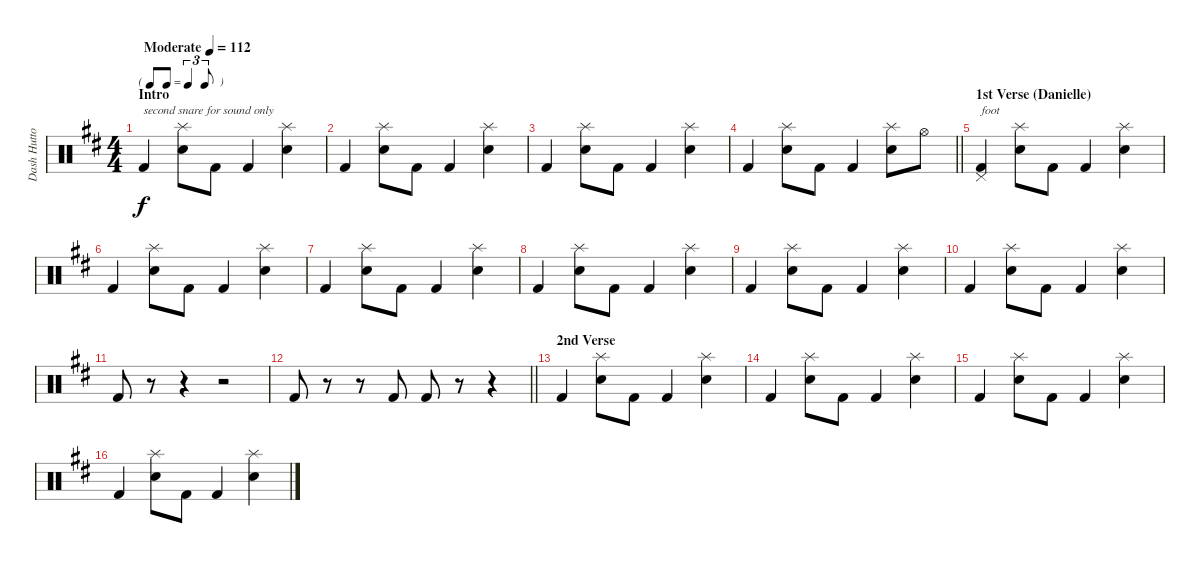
\track ("Dash Hutton" "Dash Hutto") {instrument percussion}
\staff {score}
\articulation defaults
\ts (4 4)
\tf triplet8th
\section ("" "Intro")
\tempo (112 "Moderate")
\clef neutral
\ks d "Kick (hit) 2".4{txt "second snare for sound only" dy f}
("Splash (hit)" "Snare (hit) 2").8 "Kick (hit) 2".8 "Kick (hit) 2".4 ("Splash (hit)" "Snare (hit) 2").4 |
"Kick (hit) 2".4 ("Splash (hit)" "Snare (hit) 2").8 "Kick (hit) 2".8 "Kick (hit) 2".4 ("Splash (hit)" "Snare (hit) 2").4 |
"Kick (hit) 2".4 ("Splash (hit)" "Snare (hit) 2").8 "Kick (hit) 2".8 "Kick (hit) 2".4 ("Splash (hit)" "Snare (hit) 2").4 |
\barLineRight lightlight "Kick (hit) 2".4
("Splash (hit)" "Snare (hit) 2").8 "Kick (hit) 2".8 "Kick (hit) 2".4 ("Splash (hit)" "Snare (hit) 2").8 "Hi-Hat (open)".8 |
\section ("" "1st Verse (Danielle)")
("Pedal Hi-Hat (hit)" "Kick (hit) 2").4{txt "foot"} ("Splash (hit)" "Snare (hit) 2").8 "Kick (hit) 2".8 "Kick (hit) 2".4 ("Splash (hit)" "Snare (hit) 2").4 |
"Kick (hit) 2".4 ("Splash (hit)" "Snare (hit) 2").8 "Kick (hit) 2".8 "Kick (hit) 2".4 ("Splash (hit)" "Snare (hit) 2").4 |
"Kick (hit) 2".4 ("Splash (hit)" "Snare (hit) 2").8 "Kick (hit) 2".8 "Kick (hit) 2".4 ("Splash (hit)" "Snare (hit) 2").4 |
"Kick (hit) 2".4 ("Splash (hit)" "Snare (hit) 2").8 "Kick (hit) 2".8 "Kick (hit) 2".4 ("Splash (hit)" "Snare (hit) 2").4 |
"Kick (hit) 2".4 ("Splash (hit)" "Snare (hit) 2").8 "Kick (hit) 2".8 "Kick (hit) 2".4 ("Splash (hit)" "Snare (hit) 2").4 |
"Kick (hit) 2".4 ("Splash (hit)" "Snare (hit) 2").8 "Kick (hit) 2".8 "Kick (hit) 2".4 ("Splash (hit)" "Snare (hit) 2").4 |
"Kick (hit) 2".8 r.8 r.4 r.2 |
\barLineRight lightlight "Kick (hit) 2".8
r.8 r.8 "Kick (hit) 2".8 "Kick (hit) 2".8 r.8 r.4 |
\section ("" "2nd Verse")
"Kick (hit) 2".4 ("Splash (hit)" "Snare (hit) 2").8 "Kick (hit) 2".8 "Kick (hit) 2".4 ("Splash (hit)" "Snare (hit) 2").4 |
"Kick (hit) 2".4 ("Splash (hit)" "Snare (hit) 2").8 "Kick (hit) 2".8 "Kick (hit) 2".4 ("Splash (hit)" "Snare (hit) 2").4 |
"Kick (hit) 2".4 ("Splash (hit)" "Snare (hit) 2").8 "Kick (hit) 2".8 "Kick (hit) 2".4 ("Splash (hit)" "Snare (hit) 2").4 |
"Kick (hit) 2".4 ("Splash (hit)" "Snare (hit) 2").8 "Kick (hit) 2".8 "Kick (hit) 2".4 ("Splash (hit)" "Snare (hit) 2").4
